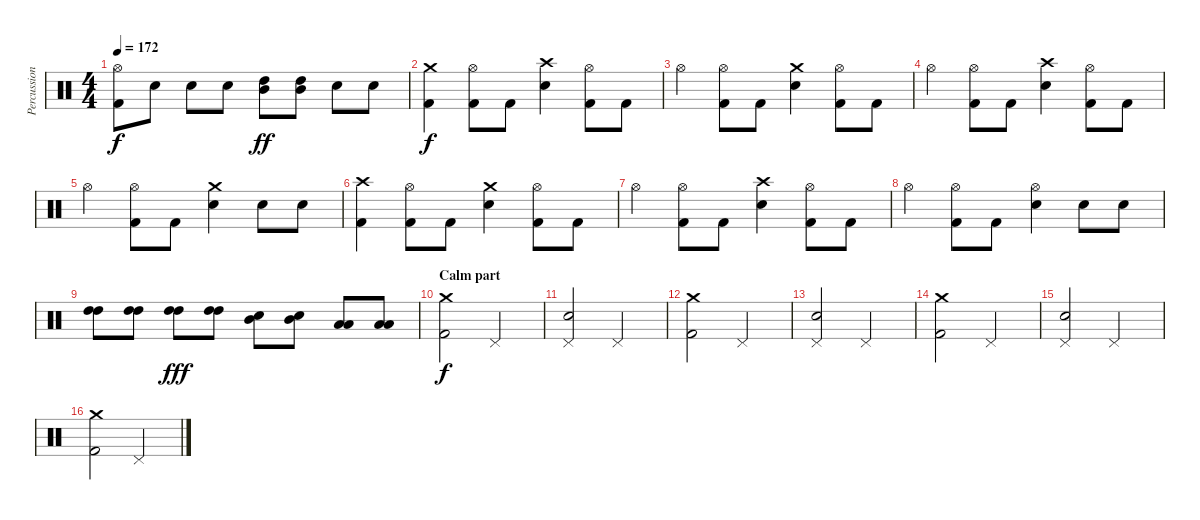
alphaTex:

\track ("Percussions" "Percussion") {instrument percussion}
\staff {score}
\articulation defaults
\ts (4 4)
\tempo 172
\clef neutral
\ks c
("Hi-Hat (open)" "Kick (hit) 2").8{dy f} "Snare (hit) 2".8 "Snare (hit) 2".8 "Snare (hit) 2".8 ("High Tom (hit)" "Mid Tom (hit)").8{dy ff} ("High Tom (hit)" "Mid Tom (hit)").8 "Snare (hit) 2".8 "Snare (hit) 2".8 |
("Crash medium (hit)" "Kick (hit) 2").4{dy f} ("Hi-Hat (open)" "Kick (hit) 2").8 "Kick (hit) 2".8 ("Crash high (hit)" "Snare (hit) 2").4 ("Hi-Hat (open)" "Kick (hit) 2").8 "Kick (hit) 2".8 |
"Hi-Hat (open)".4 ("Hi-Hat (open)" "Kick (hit) 2").8 "Kick (hit) 2".8 ("Crash medium (hit)" "Snare (hit) 2").4 ("Hi-Hat (open)" "Kick (hit) 2").8 "Kick (hit) 2".8 |
"Hi-Hat (open)".4 ("Hi-Hat (open)" "Kick (hit) 2").8 "Kick (hit) 2".8 ("Crash high (hit)" "Snare (hit) 2").4 ("Hi-Hat (open)" "Kick (hit) 2").8 "Kick (hit) 2".8 |
"Hi-Hat (open)".4 ("Hi-Hat (open)" "Kick (hit) 2").8 "Kick (hit) 2".8 ("Crash medium (hit)" "Snare (hit) 2").4 "Snare (hit) 2".8 "Snare (hit) 2".8 |
("Crash high (hit)" "Kick (hit) 2").4 ("Hi-Hat (open)" "Kick (hit) 2").8 "Kick (hit) 2".8 ("Crash medium (hit)" "Snare (hit) 2").4 ("Hi-Hat (open)" "Kick (hit) 2").8 "Kick (hit) 2".8 |
"Hi-Hat (open)".4 ("Hi-Hat (open)" "Kick (hit) 2").8 "Kick (hit) 2".8 ("Crash high (hit)" "Snare (hit) 2").4 ("Hi-Hat (open)" "Kick (hit) 2").8 "Kick (hit) 2".8 |
"Hi-Hat (open)".4 ("Hi-Hat (open)" "Kick (hit) 2").8 "Kick (hit) 2".8 ("Hi-Hat (open)" "Snare (hit) 2").4 "Snare (hit) 2".8 "Snare (hit) 2".8 |
("High Tom (hit)" "High Tom (hit)").8 ("High Tom (hit)" "High Tom (hit)").8 ("High Tom (hit)" "High Tom (hit)").8{dy fff} ("High Tom (hit)" "High Tom (hit)").8 ("Mid Tom (hit)" "Snare (hit) 2").8 ("Mid Tom (hit)" "Snare (hit) 2").8 ("Low Tom (hit)" "Low Tom (hit)").8 ("Low Tom (hit)" "Low Tom (hit)").8 |
\section ("" "Calm part")
("Crash medium (hit)" "Kick (hit) 2").2{dy f} "Pedal Hi-Hat (hit)".2 |
("Pedal Hi-Hat (hit)" "Snare (hit) 2").2 "Pedal Hi-Hat (hit)".2 |
("Crash medium (hit)" "Kick (hit) 2").2 "Pedal Hi-Hat (hit)".2 |
("Pedal Hi-Hat (hit)" "Snare (hit) 2").2 "Pedal Hi-Hat (hit)".2 |
("Crash medium (hit)" "Kick (hit) 2").2 "Pedal Hi-Hat (hit)".2 |
("Pedal Hi-Hat (hit)" "Snare (hit) 2").2 "Pedal Hi-Hat (hit)".2 |
("Crash medium (hit)" "Kick (hit) 2").2 "Pedal Hi-Hat (hit)".2
